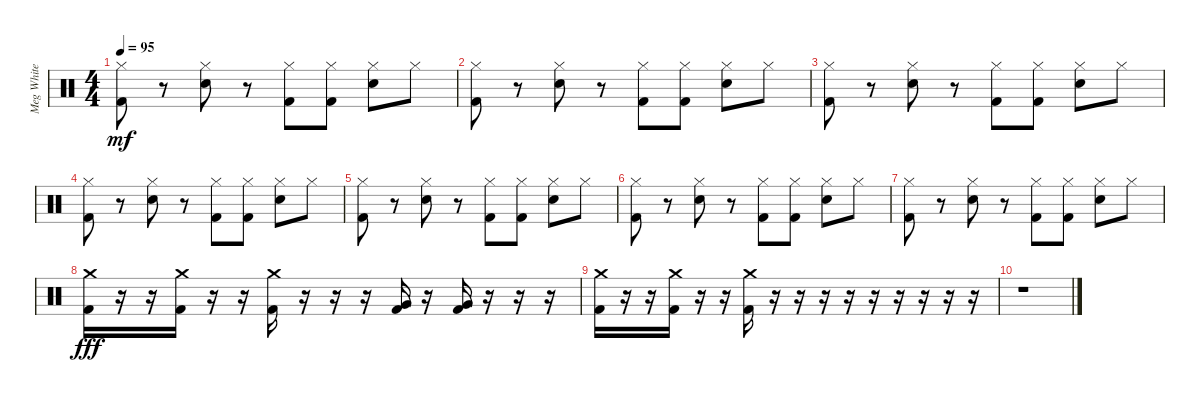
\track ("Meg White - Drums" "Meg White ") {instrument percussion}
\staff {score}
\articulation defaults
\ts (4 4)
\tempo 95
\clef neutral
\ks c
("Hi-Hat (closed)" "Kick (hit) 2").8{dy mf} r.8 ("Hi-Hat (closed)" "Electric Snare (hit)").8 r.8 ("Hi-Hat (closed)" "Kick (hit) 2").8 ("Hi-Hat (closed)" "Kick (hit) 2").8 ("Hi-Hat (closed)" "Electric Snare (hit)").8 "Hi-Hat (closed)".8 |
("Hi-Hat (closed)" "Kick (hit) 2").8 r.8 ("Hi-Hat (closed)" "Electric Snare (hit)").8 r.8 ("Hi-Hat (closed)" "Kick (hit) 2").8 ("Hi-Hat (closed)" "Kick (hit) 2").8 ("Hi-Hat (closed)" "Electric Snare (hit)").8 "Hi-Hat (closed)".8 |
("Hi-Hat (closed)" "Kick (hit) 2").8 r.8 ("Hi-Hat (closed)" "Electric Snare (hit)").8 r.8 ("Hi-Hat (closed)" "Kick (hit) 2").8 ("Hi-Hat (closed)" "Kick (hit) 2").8 ("Hi-Hat (closed)" "Electric Snare (hit)").8 "Hi-Hat (closed)".8 |
("Hi-Hat (closed)" "Kick (hit) 2").8 r.8 ("Hi-Hat (closed)" "Electric Snare (hit)").8 r.8 ("Hi-Hat (closed)" "Kick (hit) 2").8 ("Hi-Hat (closed)" "Kick (hit) 2").8 ("Hi-Hat (closed)" "Electric Snare (hit)").8 "Hi-Hat (closed)".8 |
("Hi-Hat (closed)" "Kick (hit) 2").8 r.8 ("Hi-Hat (closed)" "Electric Snare (hit)").8 r.8 ("Hi-Hat (closed)" "Kick (hit) 2").8 ("Hi-Hat (closed)" "Kick (hit) 2").8 ("Hi-Hat (closed)" "Electric Snare (hit)").8 "Hi-Hat (closed)".8 |
("Hi-Hat (closed)" "Kick (hit) 2").8 r.8 ("Hi-Hat (closed)" "Electric Snare (hit)").8 r.8 ("Hi-Hat (closed)" "Kick (hit) 2").8 ("Hi-Hat (closed)" "Kick (hit) 2").8 ("Hi-Hat (closed)" "Electric Snare (hit)").8 "Hi-Hat (closed)".8 |
("Hi-Hat (closed)" "Kick (hit) 2").8 r.8 ("Hi-Hat (closed)" "Electric Snare (hit)").8 r.8 ("Hi-Hat (closed)" "Kick (hit) 2").8 ("Hi-Hat (closed)" "Kick (hit) 2").8 ("Hi-Hat (closed)" "Electric Snare (hit)").8 "Hi-Hat (closed)".8 |
("Crash medium (hit)" "Kick (hit) 2").16{dy fff} r.16 r.16 ("Crash medium (hit)" "Kick (hit) 2").16 r.16 r.16 ("Crash medium (hit)" "Kick (hit) 2").16 r.16 r.16 r.16 ("Very Low Tom (hit)" "Kick (hit) 2").16 r.16 ("Very Low Tom (hit)" "Kick (hit) 2").16 r.16 r.16 r.16 |
("Crash medium (hit)" "Kick (hit) 2").16 r.16 r.16 ("Crash medium (hit)" "Kick (hit) 2").16 r.16 r.16 ("Crash medium (hit)" "Kick (hit) 2").16 r.16 r.16 r.16 r.16 r.16 r.16 r.16 r.16 r.16 |
r.1
